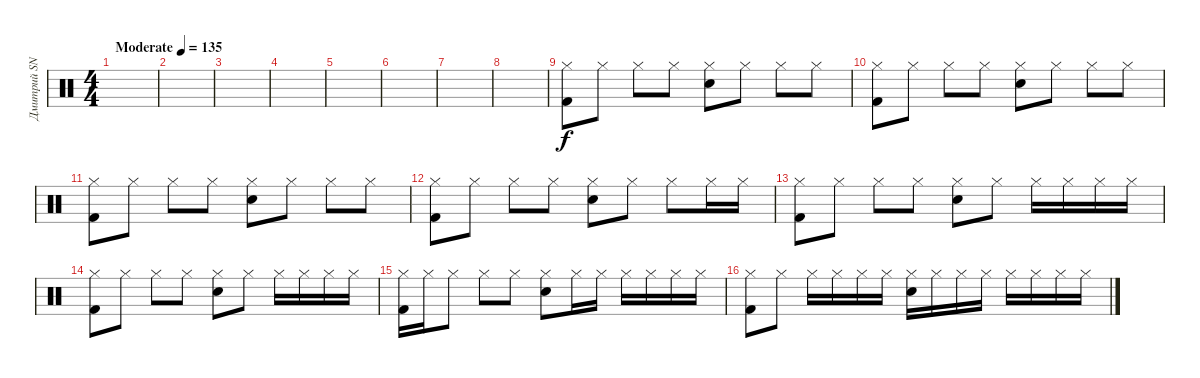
\track ("Дмитрий SNAKE Хакимов" "Дмитрий SN") {instrument percussion}
\staff {score}
\articulation defaults
\ts (4 4)
\tempo (135 "Moderate")
\clef neutral
\ks c
|
|
|
|
|
|
|
|
("Hi-Hat (closed)" "Kick (hit) 2").8 "Hi-Hat (closed)".8 "Hi-Hat (closed)".8 "Hi-Hat (closed)".8 ("Hi-Hat (closed)" "Electric Snare (hit)").8 "Hi-Hat (closed)".8 "Hi-Hat (closed)".8 "Hi-Hat (closed)".8 |
("Hi-Hat (closed)" "Kick (hit) 2").8 "Hi-Hat (closed)".8 "Hi-Hat (closed)".8 "Hi-Hat (closed)".8 ("Hi-Hat (closed)" "Electric Snare (hit)").8 "Hi-Hat (closed)".8 "Hi-Hat (closed)".8 "Hi-Hat (closed)".8 |
("Hi-Hat (closed)" "Kick (hit) 2").8 "Hi-Hat (closed)".8 "Hi-Hat (closed)".8 "Hi-Hat (closed)".8 ("Hi-Hat (closed)" "Electric Snare (hit)").8 "Hi-Hat (closed)".8 "Hi-Hat (closed)".8 "Hi-Hat (closed)".8 |
("Hi-Hat (closed)" "Kick (hit) 2").8 "Hi-Hat (closed)".8 "Hi-Hat (closed)".8 "Hi-Hat (closed)".8 ("Hi-Hat (closed)" "Electric Snare (hit)").8 "Hi-Hat (closed)".8 "Hi-Hat (closed)".8 "Hi-Hat (closed)".16 "Hi-Hat (closed)".16 |
("Hi-Hat (closed)" "Kick (hit) 2").8 "Hi-Hat (closed)".8 "Hi-Hat (closed)".8 "Hi-Hat (closed)".8 ("Hi-Hat (closed)" "Electric Snare (hit)").8 "Hi-Hat (closed)".8 "Hi-Hat (closed)".16 "Hi-Hat (closed)".16 "Hi-Hat (closed)".16 "Hi-Hat (closed)".16 |
("Hi-Hat (closed)" "Kick (hit) 2").8 "Hi-Hat (closed)".8 "Hi-Hat (closed)".8 "Hi-Hat (closed)".8 ("Hi-Hat (closed)" "Electric Snare (hit)").8 "Hi-Hat (closed)".8 "Hi-Hat (closed)".16 "Hi-Hat (closed)".16 "Hi-Hat (closed)".16 "Hi-Hat (closed)".16 |
("Hi-Hat (closed)" "Kick (hit) 2").16 "Hi-Hat (closed)".16 "Hi-Hat (closed)".8 "Hi-Hat (closed)".8 "Hi-Hat (closed)".8 ("Hi-Hat (closed)" "Electric Snare (hit)").8 "Hi-Hat (closed)".16 "Hi-Hat (closed)".16 "Hi-Hat (closed)".16 "Hi-Hat (closed)".16 "Hi-Hat (closed)".16 "Hi-Hat (closed)".16 |
("Hi-Hat (closed)" "Kick (hit) 2").8 "Hi-Hat (closed)".8 "Hi-Hat (closed)".16 "Hi-Hat (closed)".16 "Hi-Hat (closed)".16 "Hi-Hat (closed)".16 ("Hi-Hat (closed)" "Electric Snare (hit)").16 "Hi-Hat (closed)".16 "Hi-Hat (closed)".16 "Hi-Hat (closed)".16 "Hi-Hat (closed)".16 "Hi-Hat (closed)".16 "Hi-Hat (closed)".16 "Hi-Hat (closed)".16
